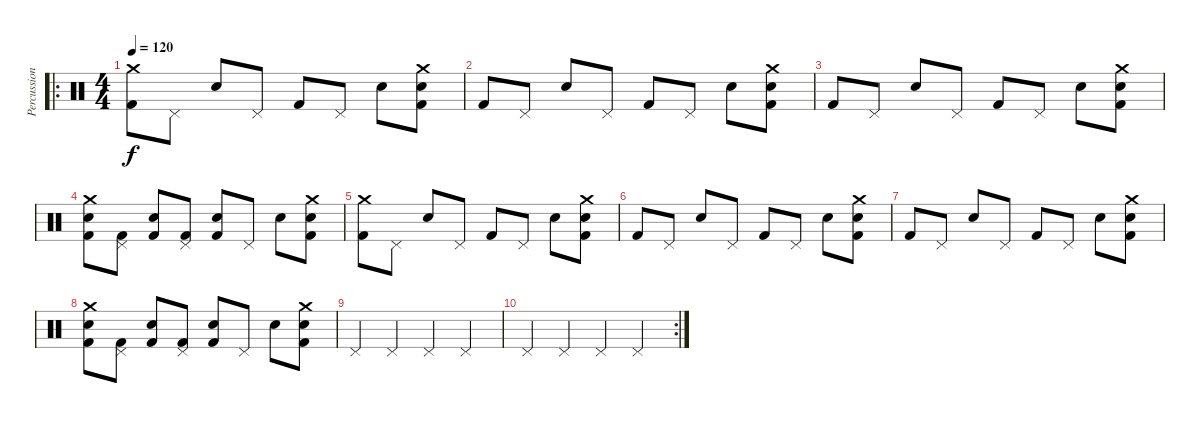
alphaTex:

\track ("Percussions" "Percussion") {instrument percussion}
\staff {score}
\articulation defaults
\ro
\ts (4 4)
\tempo 120
\clef neutral
\ks c
("Crash medium (hit)" "Kick (hit) 2").8{dy f} "Pedal Hi-Hat (hit)".8 "Electric Snare (hit)".8 "Pedal Hi-Hat (hit)".8 "Kick (hit) 2".8 "Pedal Hi-Hat (hit)".8 "Electric Snare (hit)".8 ("Crash medium (hit)" "Electric Snare (hit)" "Kick (hit) 2").8 |
"Kick (hit) 2".8 "Pedal Hi-Hat (hit)".8 "Electric Snare (hit)".8 "Pedal Hi-Hat (hit)".8 "Kick (hit) 2".8 "Pedal Hi-Hat (hit)".8 "Electric Snare (hit)".8 ("Crash medium (hit)" "Electric Snare (hit)" "Kick (hit) 2").8 |
"Kick (hit) 2".8 "Pedal Hi-Hat (hit)".8 "Electric Snare (hit)".8 "Pedal Hi-Hat (hit)".8 "Kick (hit) 2".8 "Pedal Hi-Hat (hit)".8 "Electric Snare (hit)".8 ("Crash medium (hit)" "Electric Snare (hit)" "Kick (hit) 2").8 |
("Crash medium (hit)" "Electric Snare (hit)" "Kick (hit) 2").8 ("Pedal Hi-Hat (hit)" "Kick (hit) 2").8 ("Electric Snare (hit)" "Kick (hit) 2").8 ("Pedal Hi-Hat (hit)" "Kick (hit) 2").8 ("Electric Snare (hit)" "Kick (hit) 2").8 "Pedal Hi-Hat (hit)".8 "Electric Snare (hit)".8 ("Crash medium (hit)" "Electric Snare (hit)" "Kick (hit) 2").8 |
("Crash medium (hit)" "Kick (hit) 2").8 "Pedal Hi-Hat (hit)".8 "Electric Snare (hit)".8 "Pedal Hi-Hat (hit)".8 "Kick (hit) 2".8 "Pedal Hi-Hat (hit)".8 "Electric Snare (hit)".8 ("Crash medium (hit)" "Electric Snare (hit)" "Kick (hit) 2").8 |
"Kick (hit) 2".8 "Pedal Hi-Hat (hit)".8 "Electric Snare (hit)".8 "Pedal Hi-Hat (hit)".8 "Kick (hit) 2".8 "Pedal Hi-Hat (hit)".8 "Electric Snare (hit)".8 ("Crash medium (hit)" "Electric Snare (hit)" "Kick (hit) 2").8 |
"Kick (hit) 2".8 "Pedal Hi-Hat (hit)".8 "Electric Snare (hit)".8 "Pedal Hi-Hat (hit)".8 "Kick (hit) 2".8 "Pedal Hi-Hat (hit)".8 "Electric Snare (hit)".8 ("Crash medium (hit)" "Electric Snare (hit)" "Kick (hit) 2").8 |
("Crash medium (hit)" "Electric Snare (hit)" "Kick (hit) 2").8 ("Pedal Hi-Hat (hit)" "Kick (hit) 2").8 ("Electric Snare (hit)" "Kick (hit) 2").8 ("Pedal Hi-Hat (hit)" "Kick (hit) 2").8 ("Electric Snare (hit)" "Kick (hit) 2").8 "Pedal Hi-Hat (hit)".8 "Electric Snare (hit)".8 ("Crash medium (hit)" "Electric Snare (hit)" "Kick (hit) 2").8 |
"Pedal Hi-Hat (hit)".4 "Pedal Hi-Hat (hit)".4 "Pedal Hi-Hat (hit)".4 "Pedal Hi-Hat (hit)".4 |
\rc 2 "Pedal Hi-Hat (hit)".4 "Pedal Hi-Hat (hit)".4 "Pedal Hi-Hat (hit)".4 "Pedal Hi-Hat (hit)".4
